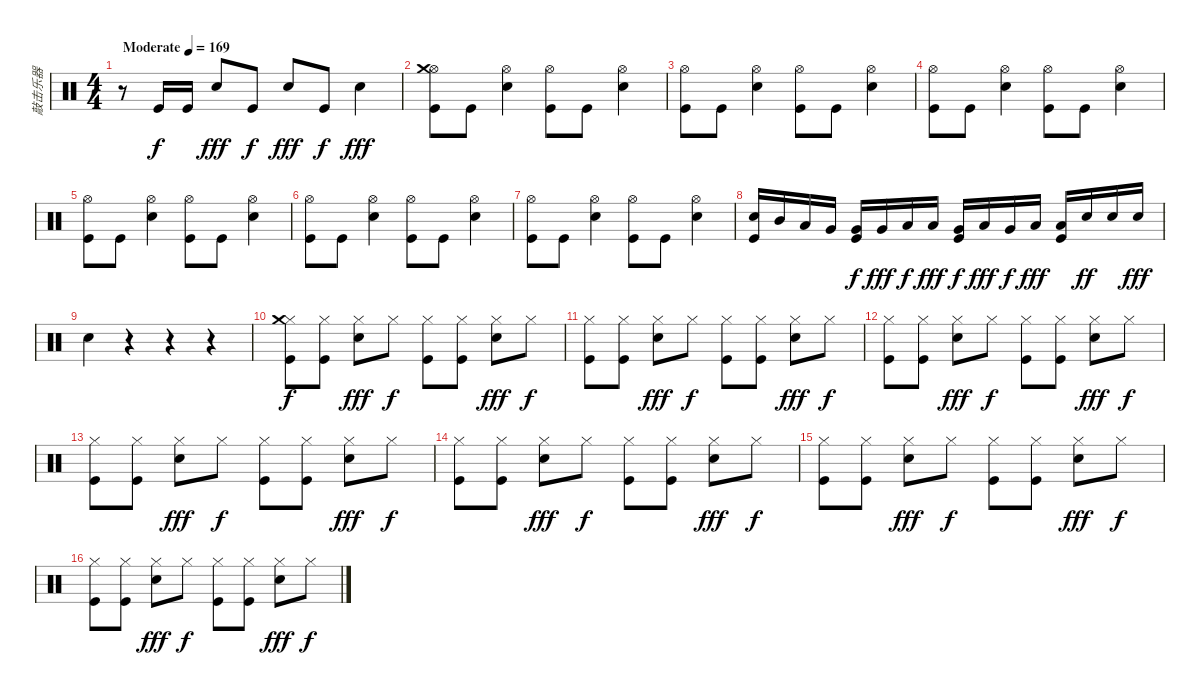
\track ("敲击乐器" "敲击乐器") {instrument percussion}
\staff {score}
\articulation defaults
\ts (4 4)
\tempo (169 "Moderate")
\clef neutral
\ks c
r.8{dy f} "Kick (hit)".16 "Kick (hit)".16 "Electric Snare (hit)".8{dy fff} "Kick (hit)".8{dy f} "Electric Snare (hit)".8{dy fff} "Kick (hit)".8{dy f} "Electric Snare (hit)".4{dy fff} |
("Hi-Hat (open)" "Crash medium (hit)" "Kick (hit)").8 "Kick (hit)".8 ("Electric Snare (hit)" "Hi-Hat (open)").4 ("Hi-Hat (open)" "Kick (hit)").8 "Kick (hit)".8 ("Hi-Hat (open)" "Electric Snare (hit)").4 |
("Hi-Hat (open)" "Kick (hit)").8 "Kick (hit)".8 ("Electric Snare (hit)" "Hi-Hat (open)").4 ("Hi-Hat (open)" "Kick (hit)").8 "Kick (hit)".8 ("Electric Snare (hit)" "Hi-Hat (open)").4 |
("Hi-Hat (open)" "Kick (hit)").8 "Kick (hit)".8 ("Electric Snare (hit)" "Hi-Hat (open)").4 ("Hi-Hat (open)" "Kick (hit)").8 "Kick (hit)".8 ("Electric Snare (hit)" "Hi-Hat (open)").4 |
("Hi-Hat (open)" "Kick (hit)").8 "Kick (hit)".8 ("Electric Snare (hit)" "Hi-Hat (open)").4 ("Hi-Hat (open)" "Kick (hit)").8 "Kick (hit)".8 ("Electric Snare (hit)" "Hi-Hat (open)").4 |
("Hi-Hat (open)" "Kick (hit)").8 "Kick (hit)".8 ("Electric Snare (hit)" "Hi-Hat (open)").4 ("Hi-Hat (open)" "Kick (hit)").8 "Kick (hit)".8 ("Electric Snare (hit)" "Hi-Hat (open)").4 |
("Hi-Hat (open)" "Kick (hit)").8 "Kick (hit)".8 ("Electric Snare (hit)" "Hi-Hat (open)").4 ("Hi-Hat (open)" "Kick (hit)").8 "Kick (hit)".8 ("Electric Snare (hit)" "Hi-Hat (open)").4 |
("Electric Snare (hit)" "Kick (hit)").16 "Mid Tom (hit)".16 "Low Tom (hit)".16 "Very Low Tom (hit)".16 ("Very Low Tom (hit)" "Kick (hit)").16{dy f} "Very Low Tom (hit)".16{dy fff} "Low Floor Tom (hit)".16{dy f} "Low Floor Tom (hit)".16{dy fff} ("Very Low Tom (hit)" "Kick (hit)").16{dy f} "Low Floor Tom (hit)".16{dy fff} "Very Low Tom (hit)".16{dy f} "Low Floor Tom (hit)".16{dy fff} ("Low Floor Tom (hit)" "Kick (hit)").16 "Electric Snare (hit)".16{dy ff} "Electric Snare (hit)".16 "Electric Snare (hit)".16{dy fff} |
"Electric Snare (hit)".4 r.4 r.4 r.4 |
("Hi-Hat (closed)" "Crash medium (hit)" "Kick (hit)").8{dy f} ("Hi-Hat (closed)" "Kick (hit)").8 ("Hi-Hat (closed)" "Electric Snare (hit)").8{dy fff} "Hi-Hat (closed)".8{dy f} ("Hi-Hat (closed)" "Kick (hit)").8 ("Hi-Hat (closed)" "Kick (hit)").8 ("Hi-Hat (closed)" "Electric Snare (hit)").8{dy fff} "Hi-Hat (closed)".8{dy f} |
("Hi-Hat (closed)" "Kick (hit)").8 ("Hi-Hat (closed)" "Kick (hit)").8 ("Hi-Hat (closed)" "Electric Snare (hit)").8{dy fff} "Hi-Hat (closed)".8{dy f} ("Hi-Hat (closed)" "Kick (hit)").8 ("Hi-Hat (closed)" "Kick (hit)").8 ("Hi-Hat (closed)" "Electric Snare (hit)").8{dy fff} "Hi-Hat (closed)".8{dy f} |
("Hi-Hat (closed)" "Kick (hit)").8 ("Hi-Hat (closed)" "Kick (hit)").8 ("Hi-Hat (closed)" "Electric Snare (hit)").8{dy fff} "Hi-Hat (closed)".8{dy f} ("Hi-Hat (closed)" "Kick (hit)").8 ("Hi-Hat (closed)" "Kick (hit)").8 ("Hi-Hat (closed)" "Electric Snare (hit)").8{dy fff} "Hi-Hat (closed)".8{dy f} |
("Hi-Hat (closed)" "Kick (hit)").8 ("Hi-Hat (closed)" "Kick (hit)").8 ("Hi-Hat (closed)" "Electric Snare (hit)").8{dy fff} "Hi-Hat (closed)".8{dy f} ("Hi-Hat (closed)" "Kick (hit)").8 ("Hi-Hat (closed)" "Kick (hit)").8 ("Hi-Hat (closed)" "Electric Snare (hit)").8{dy fff} "Hi-Hat (closed)".8{dy f} |
("Hi-Hat (closed)" "Kick (hit)").8 ("Hi-Hat (closed)" "Kick (hit)").8 ("Hi-Hat (closed)" "Electric Snare (hit)").8{dy fff} "Hi-Hat (closed)".8{dy f} ("Hi-Hat (closed)" "Kick (hit)").8 ("Hi-Hat (closed)" "Kick (hit)").8 ("Hi-Hat (closed)" "Electric Snare (hit)").8{dy fff} "Hi-Hat (closed)".8{dy f} |
("Hi-Hat (closed)" "Kick (hit)").8 ("Hi-Hat (closed)" "Kick (hit)").8 ("Hi-Hat (closed)" "Electric Snare (hit)").8{dy fff} "Hi-Hat (closed)".8{dy f} ("Hi-Hat (closed)" "Kick (hit)").8 ("Hi-Hat (closed)" "Kick (hit)").8 ("Hi-Hat (closed)" "Electric Snare (hit)").8{dy fff} "Hi-Hat (closed)".8{dy f} |
("Hi-Hat (closed)" "Kick (hit)").8 ("Hi-Hat (closed)" "Kick (hit)").8 ("Hi-Hat (closed)" "Electric Snare (hit)").8{dy fff} "Hi-Hat (closed)".8{dy f} ("Hi-Hat (closed)" "Kick (hit)").8 ("Hi-Hat (closed)" "Kick (hit)").8 ("Hi-Hat (closed)" "Electric Snare (hit)").8{dy fff} "Hi-Hat (closed)".8{dy f}
